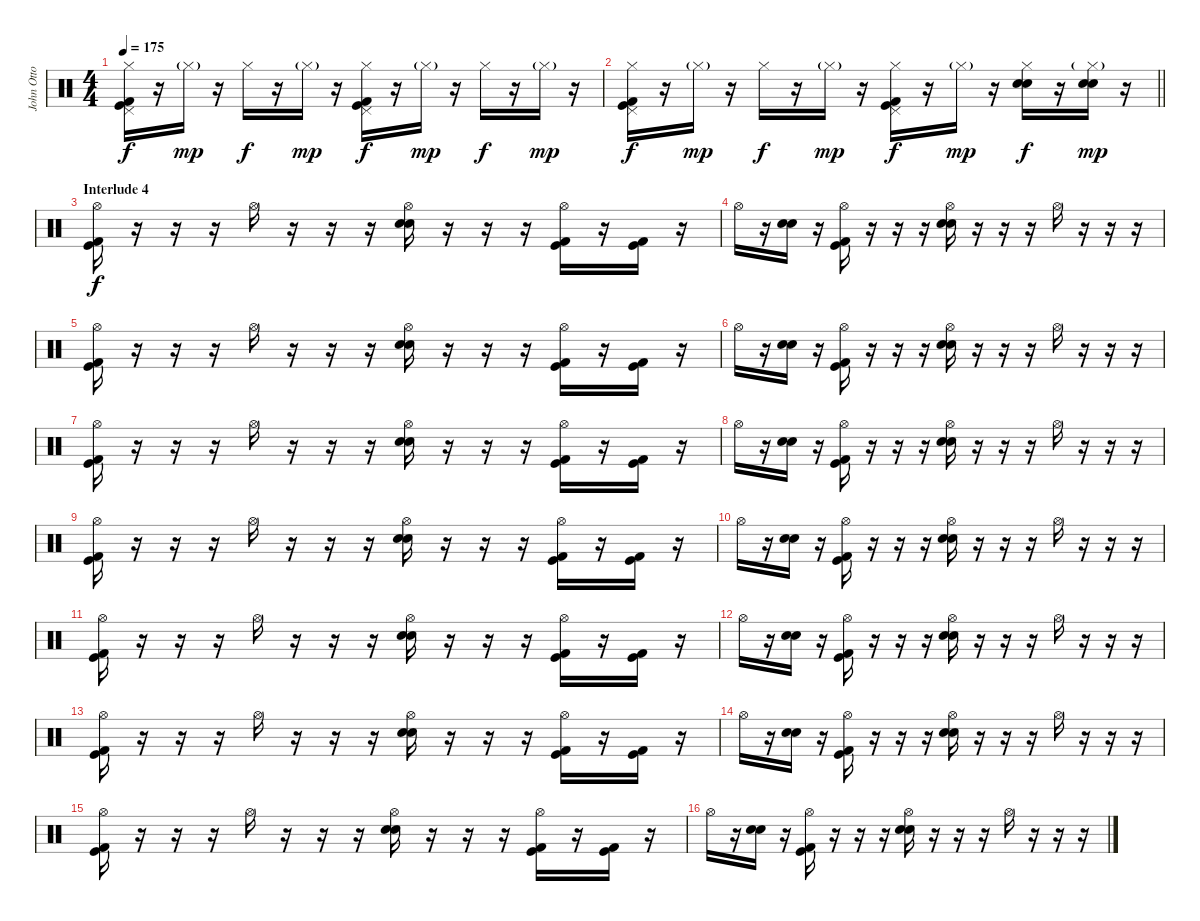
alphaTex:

\track ("John Otto" "John Otto") {instrument percussion}
\staff {score}
\articulation defaults
\ts (4 4)
\tempo 175
\clef neutral
\ks c
("Hi-Hat (closed)" "Pedal Hi-Hat (hit)" "Kick (hit) 2" "Kick (hit)").16{dy f} r.16 "Hi-Hat (closed)"{g}.16{dy mp} r.16 "Hi-Hat (closed)".16{dy f} r.16 "Hi-Hat (closed)"{g}.16{dy mp} r.16 ("Hi-Hat (closed)" "Pedal Hi-Hat (hit)" "Kick (hit) 2" "Kick (hit)").16{dy f} r.16 "Hi-Hat (closed)"{g}.16{dy mp} r.16 "Hi-Hat (closed)".16{dy f} r.16 "Hi-Hat (closed)"{g}.16{dy mp} r.16 |
\barLineRight lightlight
("Hi-Hat (closed)" "Pedal Hi-Hat (hit)" "Kick (hit) 2" "Kick (hit)").16{dy f} r.16 "Hi-Hat (closed)"{g}.16{dy mp} r.16 "Hi-Hat (closed)".16{dy f} r.16 "Hi-Hat (closed)"{g}.16{dy mp} r.16 ("Hi-Hat (closed)" "Pedal Hi-Hat (hit)" "Kick (hit) 2" "Kick (hit)").16{dy f} r.16 "Hi-Hat (closed)"{g}.16{dy mp} r.16 ("Hi-Hat (closed)" "Electric Snare (hit)" "Snare (hit) 2").16{dy f} r.16 ("Hi-Hat (closed)"{g} "Electric Snare (hit)" "Snare (hit) 2").16{dy mp} r.16 |
\section ("" "Interlude 4")
("Hi-Hat (open)" "Kick (hit) 2" "Kick (hit)").16{dy f} r.16 r.16 r.16 "Hi-Hat (open)".16 r.16 r.16 r.16 ("Hi-Hat (open)" "Electric Snare (hit)" "Snare (hit) 2").16 r.16 r.16 r.16 ("Hi-Hat (open)" "Kick (hit) 2" "Kick (hit)").16 r.16 ("Kick (hit) 2" "Kick (hit)").16 r.16 |
"Hi-Hat (open)".16 r.16 ("Electric Snare (hit)" "Snare (hit) 2").16 r.16 ("Hi-Hat (open)" "Kick (hit) 2" "Kick (hit)").16 r.16 r.16 r.16 ("Hi-Hat (open)" "Electric Snare (hit)" "Snare (hit) 2").16 r.16 r.16 r.16 "Hi-Hat (open)".16 r.16 r.16 r.16 |
("Hi-Hat (open)" "Kick (hit) 2" "Kick (hit)").16 r.16 r.16 r.16 "Hi-Hat (open)".16 r.16 r.16 r.16 ("Hi-Hat (open)" "Electric Snare (hit)" "Snare (hit) 2").16 r.16 r.16 r.16 ("Hi-Hat (open)" "Kick (hit) 2" "Kick (hit)").16 r.16 ("Kick (hit) 2" "Kick (hit)").16 r.16 |
"Hi-Hat (open)".16 r.16 ("Electric Snare (hit)" "Snare (hit) 2").16 r.16 ("Hi-Hat (open)" "Kick (hit) 2" "Kick (hit)").16 r.16 r.16 r.16 ("Hi-Hat (open)" "Electric Snare (hit)" "Snare (hit) 2").16 r.16 r.16 r.16 "Hi-Hat (open)".16 r.16 r.16 r.16 |
("Hi-Hat (open)" "Kick (hit) 2" "Kick (hit)").16 r.16 r.16 r.16 "Hi-Hat (open)".16 r.16 r.16 r.16 ("Hi-Hat (open)" "Electric Snare (hit)" "Snare (hit) 2").16 r.16 r.16 r.16 ("Hi-Hat (open)" "Kick (hit) 2" "Kick (hit)").16 r.16 ("Kick (hit) 2" "Kick (hit)").16 r.16 |
"Hi-Hat (open)".16 r.16 ("Electric Snare (hit)" "Snare (hit) 2").16 r.16 ("Hi-Hat (open)" "Kick (hit) 2" "Kick (hit)").16 r.16 r.16 r.16 ("Hi-Hat (open)" "Electric Snare (hit)" "Snare (hit) 2").16 r.16 r.16 r.16 "Hi-Hat (open)".16 r.16 r.16 r.16 |
("Hi-Hat (open)" "Kick (hit) 2" "Kick (hit)").16 r.16 r.16 r.16 "Hi-Hat (open)".16 r.16 r.16 r.16 ("Hi-Hat (open)" "Electric Snare (hit)" "Snare (hit) 2").16 r.16 r.16 r.16 ("Hi-Hat (open)" "Kick (hit) 2" "Kick (hit)").16 r.16 ("Kick (hit) 2" "Kick (hit)").16 r.16 |
"Hi-Hat (open)".16 r.16 ("Electric Snare (hit)" "Snare (hit) 2").16 r.16 ("Hi-Hat (open)" "Kick (hit) 2" "Kick (hit)").16 r.16 r.16 r.16 ("Hi-Hat (open)" "Electric Snare (hit)" "Snare (hit) 2").16 r.16 r.16 r.16 "Hi-Hat (open)".16 r.16 r.16 r.16 |
("Hi-Hat (open)" "Kick (hit) 2" "Kick (hit)").16 r.16 r.16 r.16 "Hi-Hat (open)".16 r.16 r.16 r.16 ("Hi-Hat (open)" "Electric Snare (hit)" "Snare (hit) 2").16 r.16 r.16 r.16 ("Hi-Hat (open)" "Kick (hit) 2" "Kick (hit)").16 r.16 ("Kick (hit) 2" "Kick (hit)").16 r.16 |
"Hi-Hat (open)".16 r.16 ("Electric Snare (hit)" "Snare (hit) 2").16 r.16 ("Hi-Hat (open)" "Kick (hit) 2" "Kick (hit)").16 r.16 r.16 r.16 ("Hi-Hat (open)" "Electric Snare (hit)" "Snare (hit) 2").16 r.16 r.16 r.16 "Hi-Hat (open)".16 r.16 r.16 r.16 |
("Hi-Hat (open)" "Kick (hit) 2" "Kick (hit)").16 r.16 r.16 r.16 "Hi-Hat (open)".16 r.16 r.16 r.16 ("Hi-Hat (open)" "Electric Snare (hit)" "Snare (hit) 2").16 r.16 r.16 r.16 ("Hi-Hat (open)" "Kick (hit) 2" "Kick (hit)").16 r.16 ("Kick (hit) 2" "Kick (hit)").16 r.16 |
"Hi-Hat (open)".16 r.16 ("Electric Snare (hit)" "Snare (hit) 2").16 r.16 ("Hi-Hat (open)" "Kick (hit) 2" "Kick (hit)").16 r.16 r.16 r.16 ("Hi-Hat (open)" "Electric Snare (hit)" "Snare (hit) 2").16 r.16 r.16 r.16 "Hi-Hat (open)".16 r.16 r.16 r.16 |
("Hi-Hat (open)" "Kick (hit) 2" "Kick (hit)").16 r.16 r.16 r.16 "Hi-Hat (open)".16 r.16 r.16 r.16 ("Hi-Hat (open)" "Electric Snare (hit)" "Snare (hit) 2").16 r.16 r.16 r.16 ("Hi-Hat (open)" "Kick (hit) 2" "Kick (hit)").16 r.16 ("Kick (hit) 2" "Kick (hit)").16 r.16 |
"Hi-Hat (open)".16 r.16 ("Electric Snare (hit)" "Snare (hit) 2").16 r.16 ("Hi-Hat (open)" "Kick (hit) 2" "Kick (hit)").16 r.16 r.16 r.16 ("Hi-Hat (open)" "Electric Snare (hit)" "Snare (hit) 2").16 r.16 r.16 r.16 "Hi-Hat (open)".16 r.16 r.16 r.16
